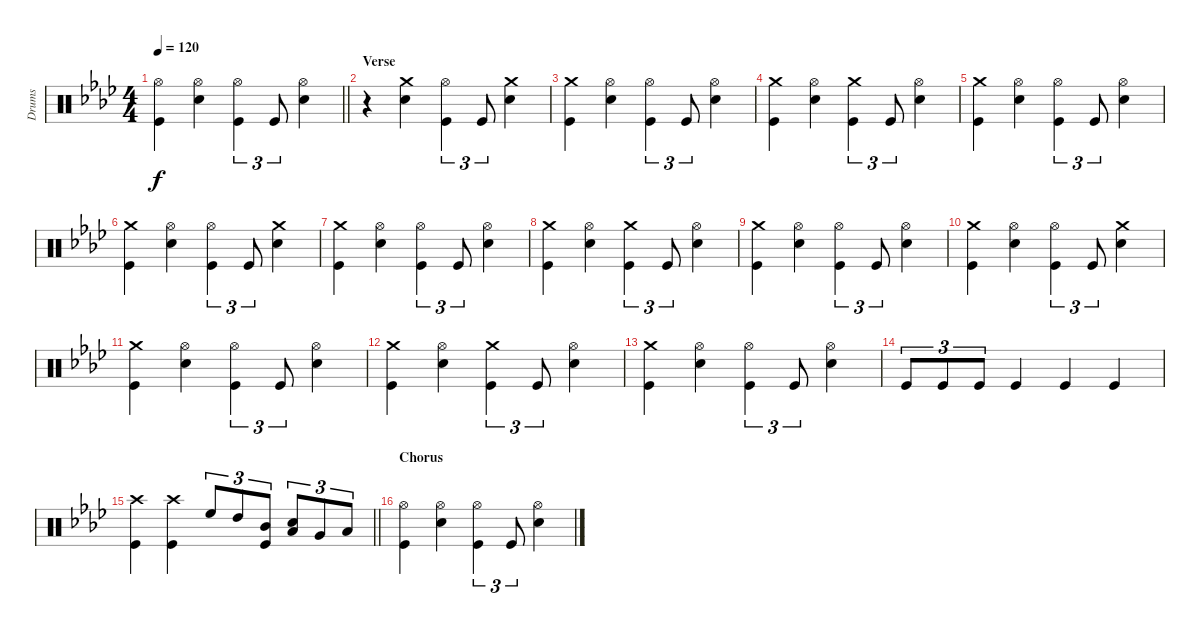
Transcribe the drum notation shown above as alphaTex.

\track ("Drums" "Drums") {instrument percussion}
\staff {score}
\articulation defaults
\ts (4 4)
\tempo 120
\clef neutral
\barLineRight lightlight
\ks ab
("Hi-Hat (open)" "Kick (hit)").4{dy f} ("Hi-Hat (open)" "Snare (hit) 2").4 ("Hi-Hat (open)" "Kick (hit)").4{tu (3 2)} "Kick (hit)".8{tu (3 2)} ("Hi-Hat (open)" "Snare (hit) 2").4 |
\section ("" "Verse")
r.4 ("Crash medium (hit)" "Snare (hit) 2").4 ("Hi-Hat (open)" "Kick (hit)").4{tu (3 2)} "Kick (hit)".8{tu (3 2)} ("Crash medium (hit)" "Snare (hit) 2").4 |
("Crash medium (hit)" "Kick (hit)").4 ("Hi-Hat (open)" "Snare (hit) 2").4 ("Hi-Hat (open)" "Kick (hit)").4{tu (3 2)} "Kick (hit)".8{tu (3 2)} ("Hi-Hat (open)" "Snare (hit) 2").4 |
("Crash medium (hit)" "Kick (hit)").4 ("Hi-Hat (open)" "Snare (hit) 2").4 ("Crash medium (hit)" "Kick (hit)").4{tu (3 2)} "Kick (hit)".8{tu (3 2)} ("Hi-Hat (open)" "Snare (hit) 2").4 |
("Crash medium (hit)" "Kick (hit)").4 ("Hi-Hat (open)" "Snare (hit) 2").4 ("Hi-Hat (open)" "Kick (hit)").4{tu (3 2)} "Kick (hit)".8{tu (3 2)} ("Hi-Hat (open)" "Snare (hit) 2").4 |
("Crash medium (hit)" "Kick (hit)").4 ("Hi-Hat (open)" "Snare (hit) 2").4 ("Hi-Hat (open)" "Kick (hit)").4{tu (3 2)} "Kick (hit)".8{tu (3 2)} ("Crash medium (hit)" "Snare (hit) 2").4 |
("Crash medium (hit)" "Kick (hit)").4 ("Hi-Hat (open)" "Snare (hit) 2").4 ("Hi-Hat (open)" "Kick (hit)").4{tu (3 2)} "Kick (hit)".8{tu (3 2)} ("Hi-Hat (open)" "Snare (hit) 2").4 |
("Crash medium (hit)" "Kick (hit)").4 ("Hi-Hat (open)" "Snare (hit) 2").4 ("Crash medium (hit)" "Kick (hit)").4{tu (3 2)} "Kick (hit)".8{tu (3 2)} ("Hi-Hat (open)" "Snare (hit) 2").4 |
("Crash medium (hit)" "Kick (hit)").4 ("Hi-Hat (open)" "Snare (hit) 2").4 ("Hi-Hat (open)" "Kick (hit)").4{tu (3 2)} "Kick (hit)".8{tu (3 2)} ("Hi-Hat (open)" "Snare (hit) 2").4 |
("Crash medium (hit)" "Kick (hit)").4 ("Hi-Hat (open)" "Snare (hit) 2").4 ("Hi-Hat (open)" "Kick (hit)").4{tu (3 2)} "Kick (hit)".8{tu (3 2)} ("Crash medium (hit)" "Snare (hit) 2").4 |
("Crash medium (hit)" "Kick (hit)").4 ("Hi-Hat (open)" "Snare (hit) 2").4 ("Hi-Hat (open)" "Kick (hit)").4{tu (3 2)} "Kick (hit)".8{tu (3 2)} ("Hi-Hat (open)" "Snare (hit) 2").4 |
("Crash medium (hit)" "Kick (hit)").4 ("Hi-Hat (open)" "Snare (hit) 2").4 ("Crash medium (hit)" "Kick (hit)").4{tu (3 2)} "Kick (hit)".8{tu (3 2)} ("Hi-Hat (open)" "Snare (hit) 2").4 |
("Crash medium (hit)" "Kick (hit)").4 ("Hi-Hat (open)" "Snare (hit) 2").4 ("Hi-Hat (open)" "Kick (hit)").4{tu (3 2)} "Kick (hit)".8{tu (3 2)} ("Hi-Hat (open)" "Snare (hit) 2").4 |
"Kick (hit)".8{tu (3 2)} "Kick (hit)".8{tu (3 2)} "Kick (hit)".8{tu (3 2)} "Kick (hit)".4 "Kick (hit)".4 "Kick (hit)".4 |
\barLineRight lightlight
("Crash high (hit)" "Kick (hit)").4 ("Crash high (hit)" "Kick (hit)").4 "High Floor Tom (hit)".8{tu (3 2)} "High Tom (hit)".8{tu (3 2)} ("Mid Tom (hit)" "Kick (hit)").8{tu (3 2)} ("Low Tom (hit)" "Snare (hit) 2").8{tu (3 2)} "Very Low Tom (hit)".8{tu (3 2)} "Low Floor Tom (hit)".8{tu (3 2)} |
\section ("" "Chorus")
("Hi-Hat (open)" "Kick (hit)").4 ("Hi-Hat (open)" "Snare (hit) 2").4 ("Hi-Hat (open)" "Kick (hit)").4{tu (3 2)} "Kick (hit)".8{tu (3 2)} ("Hi-Hat (open)" "Snare (hit) 2").4
